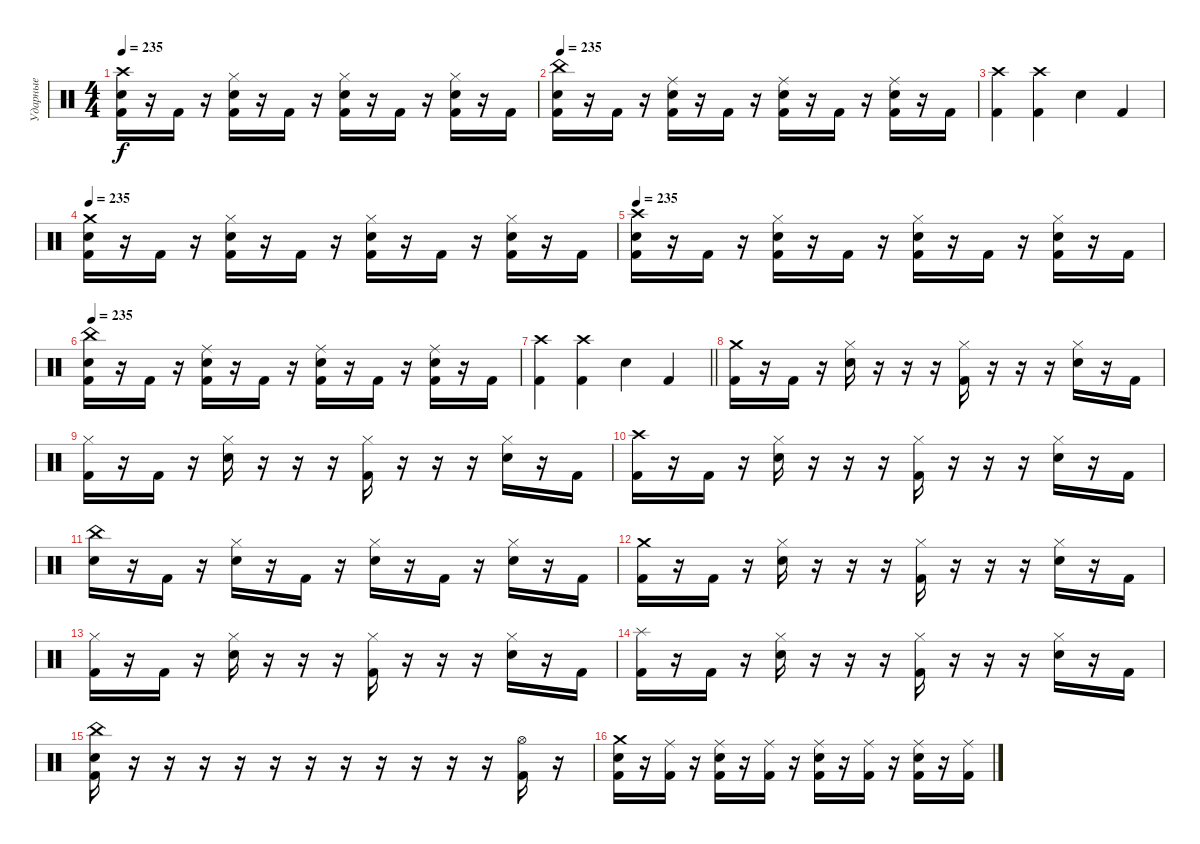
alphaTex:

\track ("Ударные" "Ударные") {instrument percussion}
\staff {score}
\articulation defaults
\ts (4 4)
\tempo 235
\clef neutral
\ks c
("Crash high (hit)" "Snare (hit) 2" "Kick (hit) 2").16{dy f} r.16 "Kick (hit) 2".16 r.16 ("Hi-Hat (closed)" "Snare (hit) 2" "Kick (hit) 2").16 r.16 "Kick (hit) 2".16 r.16 ("Hi-Hat (closed)" "Snare (hit) 2" "Kick (hit) 2").16 r.16 "Kick (hit) 2".16 r.16 ("Hi-Hat (closed)" "Snare (hit) 2" "Kick (hit) 2").16 r.16 "Kick (hit) 2".16 |
\tempo 235
("China (hit)" "Snare (hit) 2" "Kick (hit) 2").16 r.16 "Kick (hit) 2".16 r.16 ("Ride (middle)" "Snare (hit) 2" "Kick (hit) 2").16 r.16 "Kick (hit) 2".16 r.16 ("Ride (middle)" "Snare (hit) 2" "Kick (hit) 2").16 r.16 "Kick (hit) 2".16 r.16 ("Ride (middle)" "Snare (hit) 2" "Kick (hit) 2").16 r.16 "Kick (hit) 2".16 |
("Crash high (hit)" "Kick (hit) 2").4 ("Crash high (hit)" "Kick (hit) 2").4 "Snare (hit) 2".4 "Kick (hit) 2".4 |
\tempo 235
("Crash medium (hit)" "Snare (hit) 2" "Kick (hit) 2").16 r.16 "Kick (hit) 2".16 r.16 ("Hi-Hat (closed)" "Snare (hit) 2" "Kick (hit) 2").16 r.16 "Kick (hit) 2".16 r.16 ("Hi-Hat (closed)" "Snare (hit) 2" "Kick (hit) 2").16 r.16 "Kick (hit) 2".16 r.16 ("Hi-Hat (closed)" "Snare (hit) 2" "Kick (hit) 2").16 r.16 "Kick (hit) 2".16 |
\tempo 235
("Crash high (hit)" "Snare (hit) 2" "Kick (hit) 2").16 r.16 "Kick (hit) 2".16 r.16 ("Hi-Hat (closed)" "Snare (hit) 2" "Kick (hit) 2").16 r.16 "Kick (hit) 2".16 r.16 ("Hi-Hat (closed)" "Snare (hit) 2" "Kick (hit) 2").16 r.16 "Kick (hit) 2".16 r.16 ("Hi-Hat (closed)" "Snare (hit) 2" "Kick (hit) 2").16 r.16 "Kick (hit) 2".16 |
\tempo 235
("China (hit)" "Snare (hit) 2" "Kick (hit) 2").16 r.16 "Kick (hit) 2".16 r.16 ("Ride (middle)" "Snare (hit) 2" "Kick (hit) 2").16 r.16 "Kick (hit) 2".16 r.16 ("Ride (middle)" "Snare (hit) 2" "Kick (hit) 2").16 r.16 "Kick (hit) 2".16 r.16 ("Ride (middle)" "Snare (hit) 2" "Kick (hit) 2").16 r.16 "Kick (hit) 2".16 |
\barLineRight lightlight
("Crash high (hit)" "Kick (hit) 2").4 ("Crash high (hit)" "Kick (hit) 2").4 "Snare (hit) 2".4 "Kick (hit) 2".4 |
("Crash medium (hit)" "Kick (hit) 2").16 r.16 "Kick (hit) 2".16 r.16 ("Hi-Hat (closed)" "Snare (hit) 2").16 r.16 r.16 r.16 ("Hi-Hat (closed)" "Kick (hit) 2").16 r.16 r.16 r.16 ("Hi-Hat (closed)" "Snare (hit) 2").16 r.16 "Kick (hit) 2".16 |
("Hi-Hat (closed)" "Kick (hit) 2").16 r.16 "Kick (hit) 2".16 r.16 ("Hi-Hat (closed)" "Snare (hit) 2").16 r.16 r.16 r.16 ("Hi-Hat (closed)" "Kick (hit) 2").16 r.16 r.16 r.16 ("Hi-Hat (closed)" "Snare (hit) 2").16 r.16 "Kick (hit) 2".16 |
("Crash high (hit)" "Kick (hit) 2").16 r.16 "Kick (hit) 2".16 r.16 ("Hi-Hat (closed)" "Snare (hit) 2").16 r.16 r.16 r.16 ("Hi-Hat (closed)" "Kick (hit) 2").16 r.16 r.16 r.16 ("Hi-Hat (closed)" "Snare (hit) 2").16 r.16 "Kick (hit) 2".16 |
("China (hit)" "Snare (hit) 2").16 r.16 "Kick (hit) 2".16 r.16 ("Hi-Hat (closed)" "Snare (hit) 2").16 r.16 "Kick (hit) 2".16 r.16 ("Hi-Hat (closed)" "Snare (hit) 2").16 r.16 "Kick (hit) 2".16 r.16 ("Hi-Hat (closed)" "Snare (hit) 2").16 r.16 "Kick (hit) 2".16 |
("Crash medium (hit)" "Kick (hit) 2").16 r.16 "Kick (hit) 2".16 r.16 ("Hi-Hat (closed)" "Snare (hit) 2").16 r.16 r.16 r.16 ("Hi-Hat (closed)" "Kick (hit) 2").16 r.16 r.16 r.16 ("Hi-Hat (closed)" "Snare (hit) 2").16 r.16 "Kick (hit) 2".16 |
("Hi-Hat (closed)" "Kick (hit) 2").16 r.16 "Kick (hit) 2".16 r.16 ("Hi-Hat (closed)" "Snare (hit) 2").16 r.16 r.16 r.16 ("Hi-Hat (closed)" "Kick (hit) 2").16 r.16 r.16 r.16 ("Hi-Hat (closed)" "Snare (hit) 2").16 r.16 "Kick (hit) 2".16 |
("Splash (hit)" "Kick (hit) 2").16 r.16 "Kick (hit) 2".16 r.16 ("Hi-Hat (closed)" "Snare (hit) 2").16 r.16 r.16 r.16 ("Hi-Hat (closed)" "Kick (hit) 2").16 r.16 r.16 r.16 ("Hi-Hat (closed)" "Snare (hit) 2").16 r.16 "Kick (hit) 2".16 |
("China (hit)" "Snare (hit) 2" "Kick (hit) 2").16 r.16 r.16 r.16 r.16 r.16 r.16 r.16 r.16 r.16 r.16 r.16 ("Hi-Hat (open)" "Kick (hit) 2").16 r.16 |
("Crash medium (hit)" "Snare (hit) 2" "Kick (hit) 2").16 r.16 ("Ride (middle)" "Kick (hit) 2").16 r.16 ("Ride (middle)" "Snare (hit) 2" "Kick (hit) 2").16 r.16 ("Ride (middle)" "Kick (hit) 2").16 r.16 ("Ride (middle)" "Snare (hit) 2" "Kick (hit) 2").16 r.16 ("Ride (middle)" "Kick (hit) 2").16 r.16 ("Ride (middle)" "Snare (hit) 2" "Kick (hit) 2").16 r.16 ("Ride (middle)" "Kick (hit) 2").16
